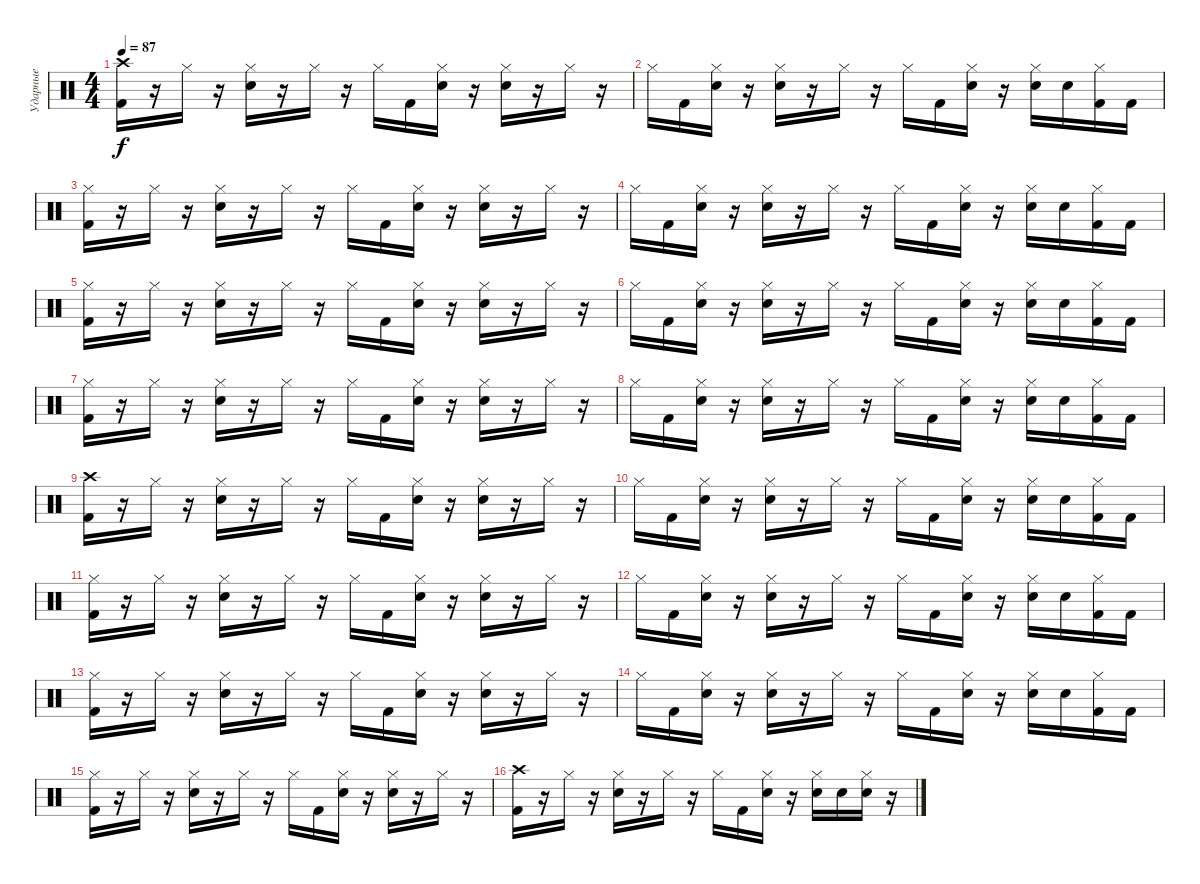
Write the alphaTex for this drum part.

\track ("Ударные" "Ударные") {instrument percussion}
\staff {score}
\articulation defaults
\ts (4 4)
\tempo 87
\clef neutral
\ks c
("Crash high (hit)" "Kick (hit) 2").16{dy f} r.16 "Hi-Hat (closed)".16 r.16 ("Hi-Hat (closed)" "Electric Snare (hit)").16 r.16 "Hi-Hat (closed)".16 r.16 "Hi-Hat (closed)".16 "Kick (hit) 2".16 ("Hi-Hat (closed)" "Electric Snare (hit)").16 r.16 ("Hi-Hat (closed)" "Electric Snare (hit)").16 r.16 "Hi-Hat (closed)".16 r.16 |
"Hi-Hat (closed)".16 "Kick (hit) 2".16 ("Hi-Hat (closed)" "Electric Snare (hit)").16 r.16 ("Hi-Hat (closed)" "Electric Snare (hit)").16 r.16 "Hi-Hat (closed)".16 r.16 "Hi-Hat (closed)".16 "Kick (hit) 2".16 ("Hi-Hat (closed)" "Electric Snare (hit)").16 r.16 ("Hi-Hat (closed)" "Electric Snare (hit)").16 "Electric Snare (hit)".16 ("Hi-Hat (closed)" "Kick (hit) 2").16 "Kick (hit) 2".16 |
("Hi-Hat (closed)" "Kick (hit) 2").16 r.16 "Hi-Hat (closed)".16 r.16 ("Hi-Hat (closed)" "Electric Snare (hit)").16 r.16 "Hi-Hat (closed)".16 r.16 "Hi-Hat (closed)".16 "Kick (hit) 2".16 ("Hi-Hat (closed)" "Electric Snare (hit)").16 r.16 ("Hi-Hat (closed)" "Electric Snare (hit)").16 r.16 "Hi-Hat (closed)".16 r.16 |
"Hi-Hat (closed)".16 "Kick (hit) 2".16 ("Hi-Hat (closed)" "Electric Snare (hit)").16 r.16 ("Hi-Hat (closed)" "Electric Snare (hit)").16 r.16 "Hi-Hat (closed)".16 r.16 "Hi-Hat (closed)".16 "Kick (hit) 2".16 ("Hi-Hat (closed)" "Electric Snare (hit)").16 r.16 ("Hi-Hat (closed)" "Electric Snare (hit)").16 "Electric Snare (hit)".16 ("Hi-Hat (closed)" "Kick (hit) 2").16 "Kick (hit) 2".16 |
("Hi-Hat (closed)" "Kick (hit) 2").16 r.16 "Hi-Hat (closed)".16 r.16 ("Hi-Hat (closed)" "Electric Snare (hit)").16 r.16 "Hi-Hat (closed)".16 r.16 "Hi-Hat (closed)".16 "Kick (hit) 2".16 ("Hi-Hat (closed)" "Electric Snare (hit)").16 r.16 ("Hi-Hat (closed)" "Electric Snare (hit)").16 r.16 "Hi-Hat (closed)".16 r.16 |
"Hi-Hat (closed)".16 "Kick (hit) 2".16 ("Hi-Hat (closed)" "Electric Snare (hit)").16 r.16 ("Hi-Hat (closed)" "Electric Snare (hit)").16 r.16 "Hi-Hat (closed)".16 r.16 "Hi-Hat (closed)".16 "Kick (hit) 2".16 ("Hi-Hat (closed)" "Electric Snare (hit)").16 r.16 ("Hi-Hat (closed)" "Electric Snare (hit)").16 "Electric Snare (hit)".16 ("Hi-Hat (closed)" "Kick (hit) 2").16 "Kick (hit) 2".16 |
("Hi-Hat (closed)" "Kick (hit) 2").16 r.16 "Hi-Hat (closed)".16 r.16 ("Hi-Hat (closed)" "Electric Snare (hit)").16 r.16 "Hi-Hat (closed)".16 r.16 "Hi-Hat (closed)".16 "Kick (hit) 2".16 ("Hi-Hat (closed)" "Electric Snare (hit)").16 r.16 ("Hi-Hat (closed)" "Electric Snare (hit)").16 r.16 "Hi-Hat (closed)".16 r.16 |
"Hi-Hat (closed)".16 "Kick (hit) 2".16 ("Hi-Hat (closed)" "Electric Snare (hit)").16 r.16 ("Hi-Hat (closed)" "Electric Snare (hit)").16 r.16 "Hi-Hat (closed)".16 r.16 "Hi-Hat (closed)".16 "Kick (hit) 2".16 ("Hi-Hat (closed)" "Electric Snare (hit)").16 r.16 ("Hi-Hat (closed)" "Electric Snare (hit)").16 "Electric Snare (hit)".16 ("Hi-Hat (closed)" "Kick (hit) 2").16 "Kick (hit) 2".16 |
("Crash high (hit)" "Kick (hit) 2").16 r.16 "Hi-Hat (closed)".16 r.16 ("Hi-Hat (closed)" "Electric Snare (hit)").16 r.16 "Hi-Hat (closed)".16 r.16 "Hi-Hat (closed)".16 "Kick (hit) 2".16 ("Hi-Hat (closed)" "Electric Snare (hit)").16 r.16 ("Hi-Hat (closed)" "Electric Snare (hit)").16 r.16 "Hi-Hat (closed)".16 r.16 |
"Hi-Hat (closed)".16 "Kick (hit) 2".16 ("Hi-Hat (closed)" "Electric Snare (hit)").16 r.16 ("Hi-Hat (closed)" "Electric Snare (hit)").16 r.16 "Hi-Hat (closed)".16 r.16 "Hi-Hat (closed)".16 "Kick (hit) 2".16 ("Hi-Hat (closed)" "Electric Snare (hit)").16 r.16 ("Hi-Hat (closed)" "Electric Snare (hit)").16 "Electric Snare (hit)".16 ("Hi-Hat (closed)" "Kick (hit) 2").16 "Kick (hit) 2".16 |
("Hi-Hat (closed)" "Kick (hit) 2").16 r.16 "Hi-Hat (closed)".16 r.16 ("Hi-Hat (closed)" "Electric Snare (hit)").16 r.16 "Hi-Hat (closed)".16 r.16 "Hi-Hat (closed)".16 "Kick (hit) 2".16 ("Hi-Hat (closed)" "Electric Snare (hit)").16 r.16 ("Hi-Hat (closed)" "Electric Snare (hit)").16 r.16 "Hi-Hat (closed)".16 r.16 |
"Hi-Hat (closed)".16 "Kick (hit) 2".16 ("Hi-Hat (closed)" "Electric Snare (hit)").16 r.16 ("Hi-Hat (closed)" "Electric Snare (hit)").16 r.16 "Hi-Hat (closed)".16 r.16 "Hi-Hat (closed)".16 "Kick (hit) 2".16 ("Hi-Hat (closed)" "Electric Snare (hit)").16 r.16 ("Hi-Hat (closed)" "Electric Snare (hit)").16 "Electric Snare (hit)".16 ("Hi-Hat (closed)" "Kick (hit) 2").16 "Kick (hit) 2".16 |
("Hi-Hat (closed)" "Kick (hit) 2").16 r.16 "Hi-Hat (closed)".16 r.16 ("Hi-Hat (closed)" "Electric Snare (hit)").16 r.16 "Hi-Hat (closed)".16 r.16 "Hi-Hat (closed)".16 "Kick (hit) 2".16 ("Hi-Hat (closed)" "Electric Snare (hit)").16 r.16 ("Hi-Hat (closed)" "Electric Snare (hit)").16 r.16 "Hi-Hat (closed)".16 r.16 |
"Hi-Hat (closed)".16 "Kick (hit) 2".16 ("Hi-Hat (closed)" "Electric Snare (hit)").16 r.16 ("Hi-Hat (closed)" "Electric Snare (hit)").16 r.16 "Hi-Hat (closed)".16 r.16 "Hi-Hat (closed)".16 "Kick (hit) 2".16 ("Hi-Hat (closed)" "Electric Snare (hit)").16 r.16 ("Hi-Hat (closed)" "Electric Snare (hit)").16 "Electric Snare (hit)".16 ("Hi-Hat (closed)" "Kick (hit) 2").16 "Kick (hit) 2".16 |
("Hi-Hat (closed)" "Kick (hit) 2").16 r.16 "Hi-Hat (closed)".16 r.16 ("Hi-Hat (closed)" "Electric Snare (hit)").16 r.16 "Hi-Hat (closed)".16 r.16 "Hi-Hat (closed)".16 "Kick (hit) 2".16 ("Hi-Hat (closed)" "Electric Snare (hit)").16 r.16 ("Hi-Hat (closed)" "Electric Snare (hit)").16 r.16 "Hi-Hat (closed)".16 r.16 |
("Crash high (hit)" "Kick (hit) 2").16 r.16 "Hi-Hat (closed)".16 r.16 ("Hi-Hat (closed)" "Electric Snare (hit)").16 r.16 "Hi-Hat (closed)".16 r.16 "Hi-Hat (closed)".16 "Kick (hit) 2".16 ("Hi-Hat (closed)" "Electric Snare (hit)").16 r.16 ("Hi-Hat (closed)" "Electric Snare (hit)").16 "Electric Snare (hit)".16 ("Hi-Hat (closed)" "Electric Snare (hit)").16 r.16
